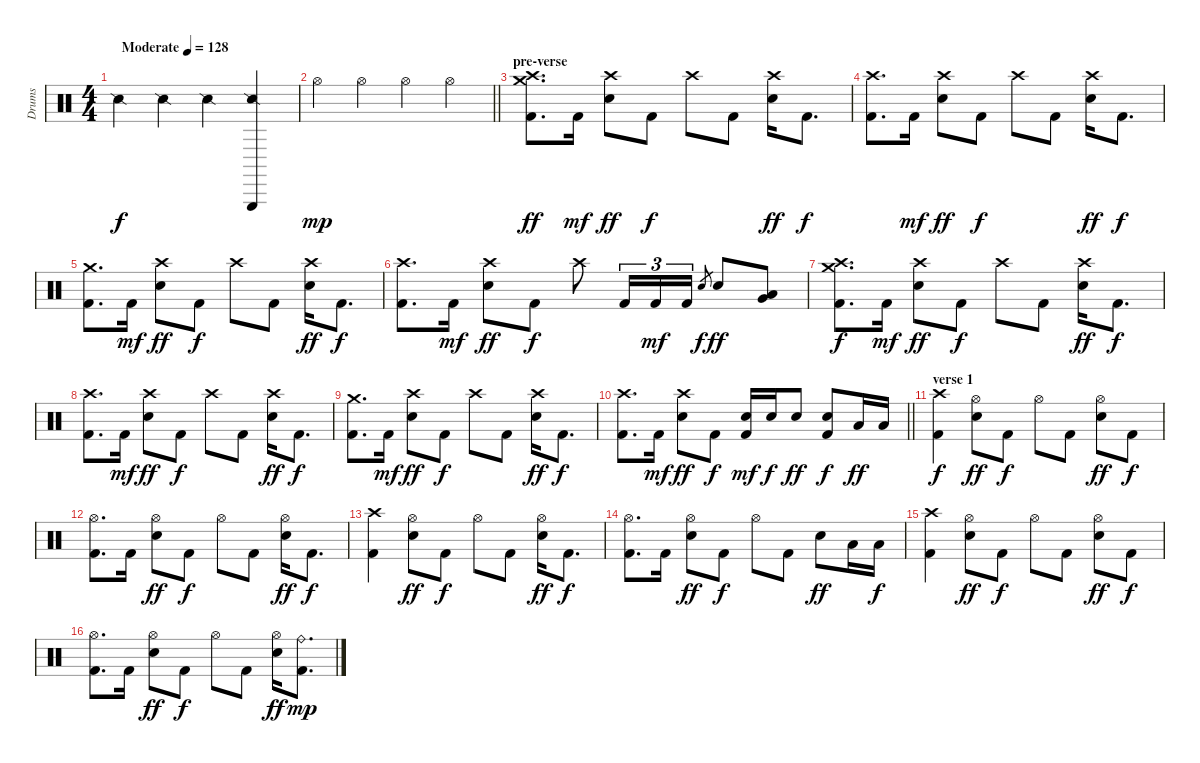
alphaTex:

\track ("Drums" "Drums") {instrument percussion}
\staff {score}
\articulation defaults
\ts (4 4)
\tempo (128 "Moderate")
\clef neutral
\ks c "Snare (side stick) 2".4{dy f} "Snare (side stick) 2".4 "Snare (side stick) 2".4
("Triangle (hit)" "Snare (side stick) 2").4 |
\barLineRight lightlight "Hi-Hat (open)".4{dy mp} "Hi-Hat (open)".4 "Hi-Hat (open)".4 "Hi-Hat (open)".4
|
\section ("" "pre-verse")
("Crash medium (hit)" "Crash high (hit)" "Kick (hit) 2").8{d dy ff} "Kick (hit) 2".16{dy mf} ("Crash high (hit)" "Electric Snare (hit)").8{dy ff} "Kick (hit) 2".8{dy f} "Crash high (hit)".8 "Kick (hit) 2".8 ("Crash high (hit)" "Electric Snare (hit)").16{dy ff} "Kick (hit) 2".8{d dy f} |
("Crash high (hit)" "Kick (hit) 2").8{d} "Kick (hit) 2".16{dy mf} ("Crash high (hit)" "Electric Snare (hit)").8{dy ff} "Kick (hit) 2".8{dy f} "Crash high (hit)".8 "Kick (hit) 2".8 ("Crash high (hit)" "Electric Snare (hit)").16{dy ff} "Kick (hit) 2".8{d dy f} |
("Crash medium (hit)" "Kick (hit) 2").8{d} "Kick (hit) 2".16{dy mf} ("Crash high (hit)" "Electric Snare (hit)").8{dy ff} "Kick (hit) 2".8{dy f} "Crash high (hit)".8 "Kick (hit) 2".8 ("Crash high (hit)" "Electric Snare (hit)").16{dy ff} "Kick (hit) 2".8{d dy f} |
("Crash high (hit)" "Kick (hit) 2").8{d} "Kick (hit) 2".16{dy mf} ("Crash high (hit)" "Electric Snare (hit)").8{dy ff} "Kick (hit) 2".8{dy f} "Crash high (hit)".8 "Kick (hit) 2".16{tu (3 2)} "Kick (hit) 2".16{tu (3 2) dy mf} "Kick (hit) 2".16{tu (3 2)} "Snare (hit) 2"{x}.8{gr dy f} "Electric Snare (hit)".8{dy ff} ("Very Low Tom (hit)" "Low Tom (hit)").8 |
("Crash medium (hit)" "Crash high (hit)" "Kick (hit) 2").8{d dy f} "Kick (hit) 2".16{dy mf} ("Crash high (hit)" "Electric Snare (hit)").8{dy ff} "Kick (hit) 2".8{dy f} "Crash high (hit)".8 "Kick (hit) 2".8 ("Crash high (hit)" "Electric Snare (hit)").16{dy ff} "Kick (hit) 2".8{d dy f} |
("Crash high (hit)" "Kick (hit) 2").8{d} "Kick (hit) 2".16{dy mf} ("Crash high (hit)" "Electric Snare (hit)").8{dy ff} "Kick (hit) 2".8{dy f} "Crash high (hit)".8 "Kick (hit) 2".8 ("Crash high (hit)" "Electric Snare (hit)").16{dy ff} "Kick (hit) 2".8{d dy f} |
("Crash medium (hit)" "Kick (hit) 2").8{d} "Kick (hit) 2".16{dy mf} ("Crash high (hit)" "Electric Snare (hit)").8{dy ff} "Kick (hit) 2".8{dy f} "Crash high (hit)".8 "Kick (hit) 2".8 ("Crash high (hit)" "Electric Snare (hit)").16{dy ff} "Kick (hit) 2".8{d dy f} |
\barLineRight lightlight
("Crash high (hit)" "Kick (hit) 2").8{d} "Kick (hit) 2".16{dy mf} ("Crash high (hit)" "Electric Snare (hit)").8{dy ff} "Kick (hit) 2".8{dy f} ("Electric Snare (hit)" "Kick (hit) 2").16{dy mf} "Electric Snare (hit)".16{dy f} "Electric Snare (hit)".8{dy ff} ("Electric Snare (hit)" "Kick (hit) 2").8{dy f} "Low Tom (hit)".16{dy ff} "Low Tom (hit)".16 |
\section ("" "verse 1")
("Crash high (hit)" "Kick (hit) 2").4{dy f} ("Hi-Hat (open)" "Electric Snare (hit)").8{dy ff} "Kick (hit) 2".8{dy f} "Hi-Hat (open)".8 "Kick (hit) 2".8 ("Hi-Hat (open)" "Electric Snare (hit)").8{dy ff} "Kick (hit) 2".8{dy f} |
("Hi-Hat (open)" "Kick (hit) 2").8{d} "Kick (hit) 2".16 ("Hi-Hat (open)" "Electric Snare (hit)").8{dy ff} "Kick (hit) 2".8{dy f} "Hi-Hat (open)".8 "Kick (hit) 2".8 ("Hi-Hat (open)" "Electric Snare (hit)").16{dy ff} "Kick (hit) 2".8{d dy f} |
("Crash high (hit)" "Kick (hit) 2").4 ("Hi-Hat (open)" "Electric Snare (hit)").8{dy ff} "Kick (hit) 2".8{dy f} "Hi-Hat (open)".8 "Kick (hit) 2".8 ("Hi-Hat (open)" "Electric Snare (hit)").16{dy ff} "Kick (hit) 2".8{d dy f} |
("Hi-Hat (open)" "Kick (hit) 2").8{d} "Kick (hit) 2".16 ("Hi-Hat (open)" "Electric Snare (hit)").8{dy ff} "Kick (hit) 2".8{dy f} "Hi-Hat (open)".8 "Kick (hit) 2".8 "Electric Snare (hit)".8{dy ff} "Low Tom (hit)".16 "Low Tom (hit)".16{dy f} |
("Crash high (hit)" "Kick (hit) 2").4 ("Hi-Hat (open)" "Electric Snare (hit)").8{dy ff} "Kick (hit) 2".8{dy f} "Hi-Hat (open)".8 "Kick (hit) 2".8 ("Hi-Hat (open)" "Electric Snare (hit)").8{dy ff} "Kick (hit) 2".8{dy f} |
("Hi-Hat (open)" "Kick (hit) 2").8{d} "Kick (hit) 2".16 ("Hi-Hat (open)" "Electric Snare (hit)").8{dy ff} "Kick (hit) 2".8{dy f} "Hi-Hat (open)".8 "Kick (hit) 2".8 ("Hi-Hat (open)" "Electric Snare (hit)").16{dy ff} ("Ride (bell)" "Kick (hit) 2").8{d dy mp}
